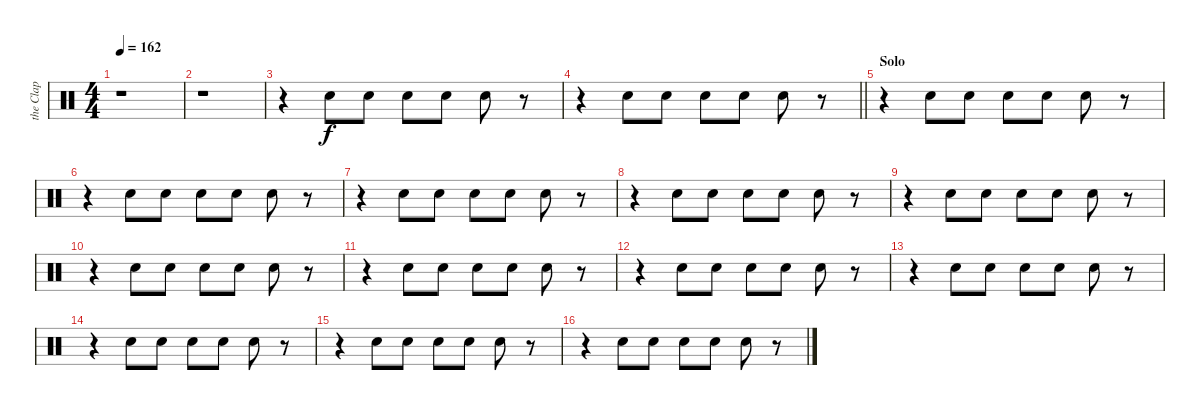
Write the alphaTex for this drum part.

\track ("the Clap" "the Clap") {instrument percussion}
\staff {score}
\articulation defaults
\ts (4 4)
\tempo 162
\clef neutral
\ks c
r.1{dy f} |
r.1 |
r.4 "Hand Clap (hit)".8 "Hand Clap (hit)".8 "Hand Clap (hit)".8 "Hand Clap (hit)".8 "Hand Clap (hit)".8 r.8 |
\barLineRight lightlight
r.4 "Hand Clap (hit)".8 "Hand Clap (hit)".8 "Hand Clap (hit)".8 "Hand Clap (hit)".8 "Hand Clap (hit)".8 r.8 |
\section ("" "Solo")
r.4 "Hand Clap (hit)".8 "Hand Clap (hit)".8 "Hand Clap (hit)".8 "Hand Clap (hit)".8 "Hand Clap (hit)".8 r.8 |
r.4 "Hand Clap (hit)".8 "Hand Clap (hit)".8 "Hand Clap (hit)".8 "Hand Clap (hit)".8 "Hand Clap (hit)".8 r.8 |
r.4 "Hand Clap (hit)".8 "Hand Clap (hit)".8 "Hand Clap (hit)".8 "Hand Clap (hit)".8 "Hand Clap (hit)".8 r.8 |
r.4 "Hand Clap (hit)".8 "Hand Clap (hit)".8 "Hand Clap (hit)".8 "Hand Clap (hit)".8 "Hand Clap (hit)".8 r.8 |
r.4 "Hand Clap (hit)".8 "Hand Clap (hit)".8 "Hand Clap (hit)".8 "Hand Clap (hit)".8 "Hand Clap (hit)".8 r.8 |
r.4 "Hand Clap (hit)".8 "Hand Clap (hit)".8 "Hand Clap (hit)".8 "Hand Clap (hit)".8 "Hand Clap (hit)".8 r.8 |
r.4 "Hand Clap (hit)".8 "Hand Clap (hit)".8 "Hand Clap (hit)".8 "Hand Clap (hit)".8 "Hand Clap (hit)".8 r.8 |
r.4 "Hand Clap (hit)".8 "Hand Clap (hit)".8 "Hand Clap (hit)".8 "Hand Clap (hit)".8 "Hand Clap (hit)".8 r.8 |
r.4 "Hand Clap (hit)".8 "Hand Clap (hit)".8 "Hand Clap (hit)".8 "Hand Clap (hit)".8 "Hand Clap (hit)".8 r.8 |
r.4 "Hand Clap (hit)".8 "Hand Clap (hit)".8 "Hand Clap (hit)".8 "Hand Clap (hit)".8 "Hand Clap (hit)".8 r.8 |
r.4 "Hand Clap (hit)".8 "Hand Clap (hit)".8 "Hand Clap (hit)".8 "Hand Clap (hit)".8 "Hand Clap (hit)".8 r.8 |
r.4 "Hand Clap (hit)".8 "Hand Clap (hit)".8 "Hand Clap (hit)".8 "Hand Clap (hit)".8 "Hand Clap (hit)".8 r.8
